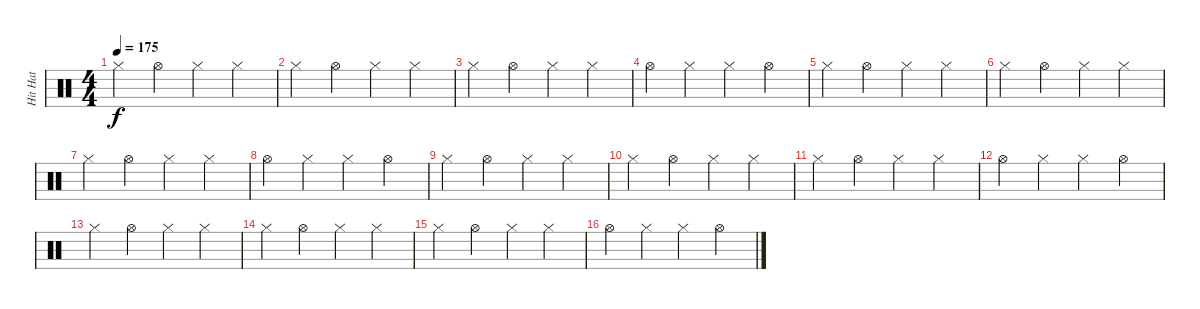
\track ("Hit Hat" "Hit Hat") {instrument percussion}
\staff {score}
\articulation defaults
\ts (4 4)
\tempo 175
\clef neutral
\ks c "Hi-Hat (closed)".4{dy f} "Hi-Hat (open)".4 "Hi-Hat (closed)".4 "Hi-Hat (closed)".4
|
"Hi-Hat (closed)".4 "Hi-Hat (open)".4 "Hi-Hat (closed)".4 "Hi-Hat (closed)".4 |
"Hi-Hat (closed)".4 "Hi-Hat (open)".4 "Hi-Hat (closed)".4 "Hi-Hat (closed)".4 |
"Hi-Hat (open)".4 "Hi-Hat (closed)".4 "Hi-Hat (closed)".4 "Hi-Hat (open)".4 |
"Hi-Hat (closed)".4 "Hi-Hat (open)".4 "Hi-Hat (closed)".4 "Hi-Hat (closed)".4 |
"Hi-Hat (closed)".4 "Hi-Hat (open)".4 "Hi-Hat (closed)".4 "Hi-Hat (closed)".4 |
"Hi-Hat (closed)".4 "Hi-Hat (open)".4 "Hi-Hat (closed)".4 "Hi-Hat (closed)".4 |
"Hi-Hat (open)".4 "Hi-Hat (closed)".4 "Hi-Hat (closed)".4 "Hi-Hat (open)".4 |
"Hi-Hat (closed)".4 "Hi-Hat (open)".4 "Hi-Hat (closed)".4 "Hi-Hat (closed)".4 |
"Hi-Hat (closed)".4 "Hi-Hat (open)".4 "Hi-Hat (closed)".4 "Hi-Hat (closed)".4 |
"Hi-Hat (closed)".4 "Hi-Hat (open)".4 "Hi-Hat (closed)".4 "Hi-Hat (closed)".4 |
"Hi-Hat (open)".4 "Hi-Hat (closed)".4 "Hi-Hat (closed)".4 "Hi-Hat (open)".4 |
"Hi-Hat (closed)".4 "Hi-Hat (open)".4 "Hi-Hat (closed)".4 "Hi-Hat (closed)".4 |
"Hi-Hat (closed)".4 "Hi-Hat (open)".4 "Hi-Hat (closed)".4 "Hi-Hat (closed)".4 |
"Hi-Hat (closed)".4 "Hi-Hat (open)".4 "Hi-Hat (closed)".4 "Hi-Hat (closed)".4 |
"Hi-Hat (open)".4 "Hi-Hat (closed)".4 "Hi-Hat (closed)".4 "Hi-Hat (open)".4
